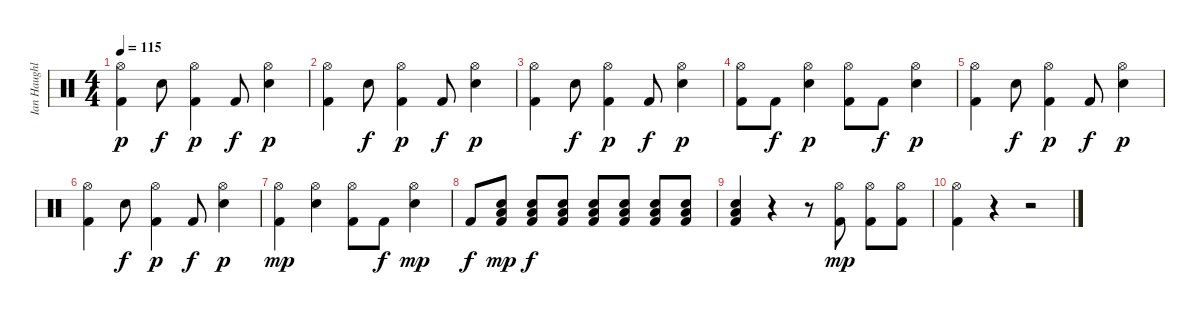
\track ("Ian Haughland" "Ian Haughl") {instrument percussion}
\staff {score}
\articulation defaults
\ts (4 4)
\tempo 115
\clef neutral
\ks c
("Kick (hit) 2" "Hi-Hat (open)").4{dy p} "Snare (hit) 2".8{dy f} ("Kick (hit) 2" "Hi-Hat (open)").4{dy p} "Kick (hit) 2".8{dy f} ("Snare (hit) 2" "Hi-Hat (open)").4{dy p} |
("Kick (hit) 2" "Hi-Hat (open)").4 "Snare (hit) 2".8{dy f} ("Kick (hit) 2" "Hi-Hat (open)").4{dy p} "Kick (hit) 2".8{dy f} ("Snare (hit) 2" "Hi-Hat (open)").4{dy p} |
("Kick (hit) 2" "Hi-Hat (open)").4 "Snare (hit) 2".8{dy f} ("Kick (hit) 2" "Hi-Hat (open)").4{dy p} "Kick (hit) 2".8{dy f} ("Snare (hit) 2" "Hi-Hat (open)").4{dy p} |
("Kick (hit) 2" "Hi-Hat (open)").8 "Kick (hit) 2".8{dy f} ("Snare (hit) 2" "Hi-Hat (open)").4{dy p} ("Kick (hit) 2" "Hi-Hat (open)").8 "Kick (hit) 2".8{dy f} ("Snare (hit) 2" "Hi-Hat (open)").4{dy p} |
("Kick (hit) 2" "Hi-Hat (open)").4 "Snare (hit) 2".8{dy f} ("Kick (hit) 2" "Hi-Hat (open)").4{dy p} "Kick (hit) 2".8{dy f} ("Snare (hit) 2" "Hi-Hat (open)").4{dy p} |
("Kick (hit) 2" "Hi-Hat (open)").4 "Snare (hit) 2".8{dy f} ("Kick (hit) 2" "Hi-Hat (open)").4{dy p} "Kick (hit) 2".8{dy f} ("Snare (hit) 2" "Hi-Hat (open)").4{dy p} |
("Kick (hit) 2" "Hi-Hat (open)").4{dy mp} ("Snare (hit) 2" "Hi-Hat (open)").4 ("Kick (hit) 2" "Hi-Hat (open)").8 "Kick (hit) 2".8{dy f} ("Snare (hit) 2" "Hi-Hat (open)").4{dy mp} |
"Kick (hit) 2".8{dy f} ("Kick (hit) 2" "Snare (hit) 2" "Low Floor Tom (hit)").8{dy mp} ("Kick (hit) 2" "Snare (hit) 2" "Low Floor Tom (hit)").8{dy f} ("Kick (hit) 2" "Snare (hit) 2" "Low Floor Tom (hit)").8 ("Kick (hit) 2" "Snare (hit) 2" "Low Floor Tom (hit)").8 ("Kick (hit) 2" "Snare (hit) 2" "Low Floor Tom (hit)").8 ("Kick (hit) 2" "Snare (hit) 2" "Low Floor Tom (hit)").8 ("Kick (hit) 2" "Snare (hit) 2" "Low Floor Tom (hit)").8 |
("Kick (hit) 2" "Snare (hit) 2" "Low Floor Tom (hit)").4 r.4 r.8 ("Kick (hit) 2" "Hi-Hat (open)").8{dy mp} ("Kick (hit) 2" "Hi-Hat (open)").8 ("Kick (hit) 2" "Hi-Hat (open)").8 |
("Kick (hit) 2" "Hi-Hat (open)").4 r.4 r.2
